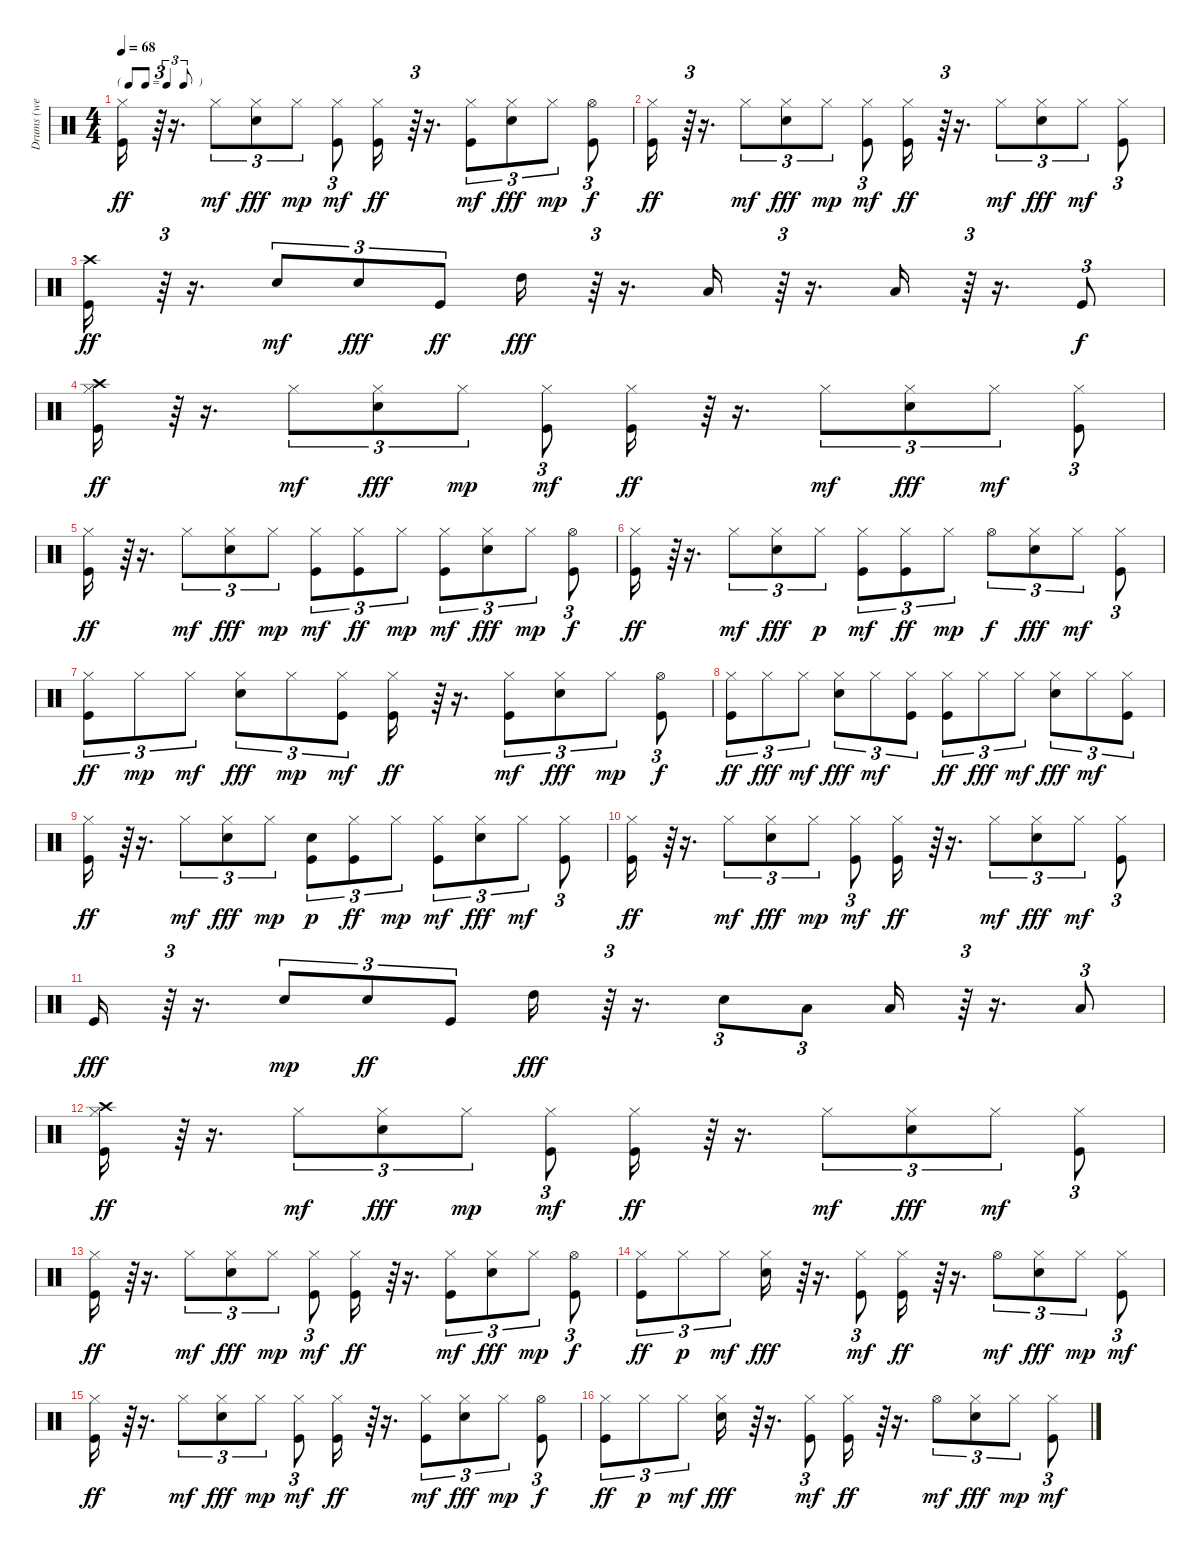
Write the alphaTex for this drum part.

\track (" Drums (well Duh!)" " Drums (we") {instrument percussion}
\staff {score}
\articulation defaults
\ts (4 4)
\tf triplet8th
\tempo 68
\clef neutral
\ks c
("Kick (hit)" "Hi-Hat (closed)").16{dy ff} r.64{tu (3 2)} r.16{d} "Hi-Hat (closed)".8{tu (3 2) dy mf} ("Snare (hit) 2" "Hi-Hat (closed)").8{tu (3 2) dy fff} "Hi-Hat (closed)".8{tu (3 2) dy mp} ("Kick (hit)" "Hi-Hat (closed)").8{tu (3 2) dy mf} ("Kick (hit)" "Hi-Hat (closed)").16{dy ff} r.64{tu (3 2)} r.16{d} ("Kick (hit)" "Hi-Hat (closed)").8{tu (3 2) dy mf} ("Snare (hit) 2" "Hi-Hat (closed)").8{tu (3 2) dy fff} "Hi-Hat (closed)".8{tu (3 2) dy mp} ("Kick (hit)" "Hi-Hat (open)").8{tu (3 2) dy f} |
("Kick (hit)" "Hi-Hat (closed)").16{dy ff} r.64{tu (3 2)} r.16{d} "Hi-Hat (closed)".8{tu (3 2) dy mf} ("Snare (hit) 2" "Hi-Hat (closed)").8{tu (3 2) dy fff} "Hi-Hat (closed)".8{tu (3 2) dy mp} ("Kick (hit)" "Hi-Hat (closed)").8{tu (3 2) dy mf} ("Kick (hit)" "Hi-Hat (closed)").16{dy ff} r.64{tu (3 2)} r.16{d} "Hi-Hat (closed)".8{tu (3 2) dy mf} ("Snare (hit) 2" "Hi-Hat (closed)").8{tu (3 2) dy fff} "Hi-Hat (closed)".8{tu (3 2) dy mf} ("Kick (hit)" "Hi-Hat (closed)").8{tu (3 2)} |
("Kick (hit)" "Crash high (hit)").16{dy ff} r.64{tu (3 2)} r.16{d} "Snare (hit) 2".8{tu (3 2) dy mf} "Snare (hit) 2".8{tu (3 2) dy fff} "Kick (hit)".8{tu (3 2) dy ff} "High Tom (hit)".16{dy fff} r.64{tu (3 2)} r.16{d} "Low Tom (hit)".16 r.64{tu (3 2)} r.16{d} "Low Floor Tom (hit)".16 r.64{tu (3 2)} r.16{d} "Kick (hit)".8{tu (3 2) dy f} |
("Kick (hit)" "Hi-Hat (closed)" "Crash high (hit)").16{dy ff} r.64{tu (3 2)} r.16{d} "Hi-Hat (closed)".8{tu (3 2) dy mf} ("Snare (hit) 2" "Hi-Hat (closed)").8{tu (3 2) dy fff} "Hi-Hat (closed)".8{tu (3 2) dy mp} ("Kick (hit)" "Hi-Hat (closed)").8{tu (3 2) dy mf} ("Kick (hit)" "Hi-Hat (closed)").16{dy ff} r.64{tu (3 2)} r.16{d} "Hi-Hat (closed)".8{tu (3 2) dy mf} ("Snare (hit) 2" "Hi-Hat (closed)").8{tu (3 2) dy fff} "Hi-Hat (closed)".8{tu (3 2) dy mf} ("Kick (hit)" "Hi-Hat (closed)").8{tu (3 2)} |
("Kick (hit)" "Hi-Hat (closed)").16{dy ff} r.64{tu (3 2)} r.16{d} "Hi-Hat (closed)".8{tu (3 2) dy mf} ("Snare (hit) 2" "Hi-Hat (closed)").8{tu (3 2) dy fff} "Hi-Hat (closed)".8{tu (3 2) dy mp} ("Kick (hit)" "Hi-Hat (closed)").8{tu (3 2) dy mf} ("Kick (hit)" "Hi-Hat (closed)").8{tu (3 2) dy ff} "Hi-Hat (closed)".8{tu (3 2) dy mp} ("Kick (hit)" "Hi-Hat (closed)").8{tu (3 2) dy mf} ("Snare (hit) 2" "Hi-Hat (closed)").8{tu (3 2) dy fff} "Hi-Hat (closed)".8{tu (3 2) dy mp} ("Kick (hit)" "Hi-Hat (open)").8{tu (3 2) dy f} |
("Kick (hit)" "Hi-Hat (closed)").16{dy ff} r.64{tu (3 2)} r.16{d} "Hi-Hat (closed)".8{tu (3 2) dy mf} ("Snare (hit) 2" "Hi-Hat (closed)").8{tu (3 2) dy fff} "Hi-Hat (closed)".8{tu (3 2) dy p} ("Kick (hit)" "Hi-Hat (closed)").8{tu (3 2) dy mf} ("Kick (hit)" "Hi-Hat (closed)").8{tu (3 2) dy ff} "Hi-Hat (closed)".8{tu (3 2) dy mp} "Hi-Hat (open)".8{tu (3 2) dy f} ("Snare (hit) 2" "Hi-Hat (closed)").8{tu (3 2) dy fff} "Hi-Hat (closed)".8{tu (3 2) dy mf} ("Kick (hit)" "Hi-Hat (closed)").8{tu (3 2)} |
("Kick (hit)" "Hi-Hat (closed)").8{tu (3 2) dy ff} "Hi-Hat (closed)".8{tu (3 2) dy mp} "Hi-Hat (closed)".8{tu (3 2) dy mf} ("Snare (hit) 2" "Hi-Hat (closed)").8{tu (3 2) dy fff} "Hi-Hat (closed)".8{tu (3 2) dy mp} ("Kick (hit)" "Hi-Hat (closed)").8{tu (3 2) dy mf} ("Kick (hit)" "Hi-Hat (closed)").16{dy ff} r.64{tu (3 2)} r.16{d} ("Kick (hit)" "Hi-Hat (closed)").8{tu (3 2) dy mf} ("Snare (hit) 2" "Hi-Hat (closed)").8{tu (3 2) dy fff} "Hi-Hat (closed)".8{tu (3 2) dy mp} ("Kick (hit)" "Hi-Hat (open)").8{tu (3 2) dy f} |
("Kick (hit)" "Hi-Hat (closed)").8{tu (3 2) dy ff} "Hi-Hat (closed)".8{tu (3 2) dy fff} "Hi-Hat (closed)".8{tu (3 2) dy mf} ("Snare (hit) 2" "Hi-Hat (closed)").8{tu (3 2) dy fff} "Hi-Hat (closed)".8{tu (3 2) dy mf} ("Kick (hit)" "Hi-Hat (closed)").8{tu (3 2)} ("Kick (hit)" "Hi-Hat (closed)").8{tu (3 2) dy ff} "Hi-Hat (closed)".8{tu (3 2) dy fff} "Hi-Hat (closed)".8{tu (3 2) dy mf} ("Snare (hit) 2" "Hi-Hat (closed)").8{tu (3 2) dy fff} "Hi-Hat (closed)".8{tu (3 2) dy mf} ("Kick (hit)" "Hi-Hat (closed)").8{tu (3 2)} |
("Kick (hit)" "Hi-Hat (closed)").16{dy ff} r.64{tu (3 2)} r.16{d} "Hi-Hat (closed)".8{tu (3 2) dy mf} ("Snare (hit) 2" "Hi-Hat (closed)").8{tu (3 2) dy fff} "Hi-Hat (closed)".8{tu (3 2) dy mp} ("Kick (hit)" "Snare (hit) 2").8{tu (3 2) dy p} ("Kick (hit)" "Hi-Hat (closed)").8{tu (3 2) dy ff} "Hi-Hat (closed)".8{tu (3 2) dy mp} ("Kick (hit)" "Hi-Hat (closed)").8{tu (3 2) dy mf} ("Snare (hit) 2" "Hi-Hat (closed)").8{tu (3 2) dy fff} "Hi-Hat (closed)".8{tu (3 2) dy mf} ("Kick (hit)" "Hi-Hat (closed)").8{tu (3 2)} |
("Kick (hit)" "Hi-Hat (closed)").16{dy ff} r.64{tu (3 2)} r.16{d} "Hi-Hat (closed)".8{tu (3 2) dy mf} ("Snare (hit) 2" "Hi-Hat (closed)").8{tu (3 2) dy fff} "Hi-Hat (closed)".8{tu (3 2) dy mp} ("Kick (hit)" "Hi-Hat (closed)").8{tu (3 2) dy mf} ("Kick (hit)" "Hi-Hat (closed)").16{dy ff} r.64{tu (3 2)} r.16{d} "Hi-Hat (closed)".8{tu (3 2) dy mf} ("Snare (hit) 2" "Hi-Hat (closed)").8{tu (3 2) dy fff} "Hi-Hat (closed)".8{tu (3 2) dy mf} ("Kick (hit)" "Hi-Hat (closed)").8{tu (3 2)} |
"Kick (hit)".16{dy fff} r.64{tu (3 2)} r.16{d} "Snare (hit) 2".8{tu (3 2) dy mp} "Snare (hit) 2".8{tu (3 2) dy ff} "Kick (hit)".8{tu (3 2)} "High Tom (hit)".16{dy fff} r.64{tu (3 2)} r.16{d} "Snare (hit) 2".8{tu (3 2)} "Low Tom (hit)".8{tu (3 2)} "Low Floor Tom (hit)".16 r.64{tu (3 2)} r.16{d} "Low Floor Tom (hit)".8{tu (3 2)} |
("Kick (hit)" "Hi-Hat (closed)" "Crash high (hit)").16{dy ff} r.64{tu (3 2)} r.16{d} "Hi-Hat (closed)".8{tu (3 2) dy mf} ("Snare (hit) 2" "Hi-Hat (closed)").8{tu (3 2) dy fff} "Hi-Hat (closed)".8{tu (3 2) dy mp} ("Kick (hit)" "Hi-Hat (closed)").8{tu (3 2) dy mf} ("Kick (hit)" "Hi-Hat (closed)").16{dy ff} r.64{tu (3 2)} r.16{d} "Hi-Hat (closed)".8{tu (3 2) dy mf} ("Snare (hit) 2" "Hi-Hat (closed)").8{tu (3 2) dy fff} "Hi-Hat (closed)".8{tu (3 2) dy mf} ("Kick (hit)" "Hi-Hat (closed)").8{tu (3 2)} |
("Kick (hit)" "Hi-Hat (closed)").16{dy ff} r.64{tu (3 2)} r.16{d} "Hi-Hat (closed)".8{tu (3 2) dy mf} ("Snare (hit) 2" "Hi-Hat (closed)").8{tu (3 2) dy fff} "Hi-Hat (closed)".8{tu (3 2) dy mp} ("Kick (hit)" "Hi-Hat (closed)").8{tu (3 2) dy mf} ("Kick (hit)" "Hi-Hat (closed)").16{dy ff} r.64{tu (3 2)} r.16{d} ("Kick (hit)" "Hi-Hat (closed)").8{tu (3 2) dy mf} ("Snare (hit) 2" "Hi-Hat (closed)").8{tu (3 2) dy fff} "Hi-Hat (closed)".8{tu (3 2) dy mp} ("Kick (hit)" "Hi-Hat (open)").8{tu (3 2) dy f} |
("Kick (hit)" "Hi-Hat (closed)").8{tu (3 2) dy ff} "Hi-Hat (closed)".8{tu (3 2) dy p} "Hi-Hat (closed)".8{tu (3 2) dy mf} ("Snare (hit) 2" "Hi-Hat (closed)").16{dy fff} r.64{tu (3 2)} r.16{d} ("Kick (hit)" "Hi-Hat (closed)").8{tu (3 2) dy mf} ("Kick (hit)" "Hi-Hat (closed)").16{dy ff} r.64{tu (3 2)} r.16{d} "Hi-Hat (open)".8{tu (3 2) dy mf} ("Snare (hit) 2" "Hi-Hat (closed)").8{tu (3 2) dy fff} "Hi-Hat (closed)".8{tu (3 2) dy mp} ("Kick (hit)" "Hi-Hat (closed)").8{tu (3 2) dy mf} |
("Kick (hit)" "Hi-Hat (closed)").16{dy ff} r.64{tu (3 2)} r.16{d} "Hi-Hat (closed)".8{tu (3 2) dy mf} ("Snare (hit) 2" "Hi-Hat (closed)").8{tu (3 2) dy fff} "Hi-Hat (closed)".8{tu (3 2) dy mp} ("Kick (hit)" "Hi-Hat (closed)").8{tu (3 2) dy mf} ("Kick (hit)" "Hi-Hat (closed)").16{dy ff} r.64{tu (3 2)} r.16{d} ("Kick (hit)" "Hi-Hat (closed)").8{tu (3 2) dy mf} ("Snare (hit) 2" "Hi-Hat (closed)").8{tu (3 2) dy fff} "Hi-Hat (closed)".8{tu (3 2) dy mp} ("Kick (hit)" "Hi-Hat (open)").8{tu (3 2) dy f} |
("Kick (hit)" "Hi-Hat (closed)").8{tu (3 2) dy ff} "Hi-Hat (closed)".8{tu (3 2) dy p} "Hi-Hat (closed)".8{tu (3 2) dy mf} ("Snare (hit) 2" "Hi-Hat (closed)").16{dy fff} r.64{tu (3 2)} r.16{d} ("Kick (hit)" "Hi-Hat (closed)").8{tu (3 2) dy mf} ("Kick (hit)" "Hi-Hat (closed)").16{dy ff} r.64{tu (3 2)} r.16{d} "Hi-Hat (open)".8{tu (3 2) dy mf} ("Snare (hit) 2" "Hi-Hat (closed)").8{tu (3 2) dy fff} "Hi-Hat (closed)".8{tu (3 2) dy mp} ("Kick (hit)" "Hi-Hat (closed)").8{tu (3 2) dy mf}
